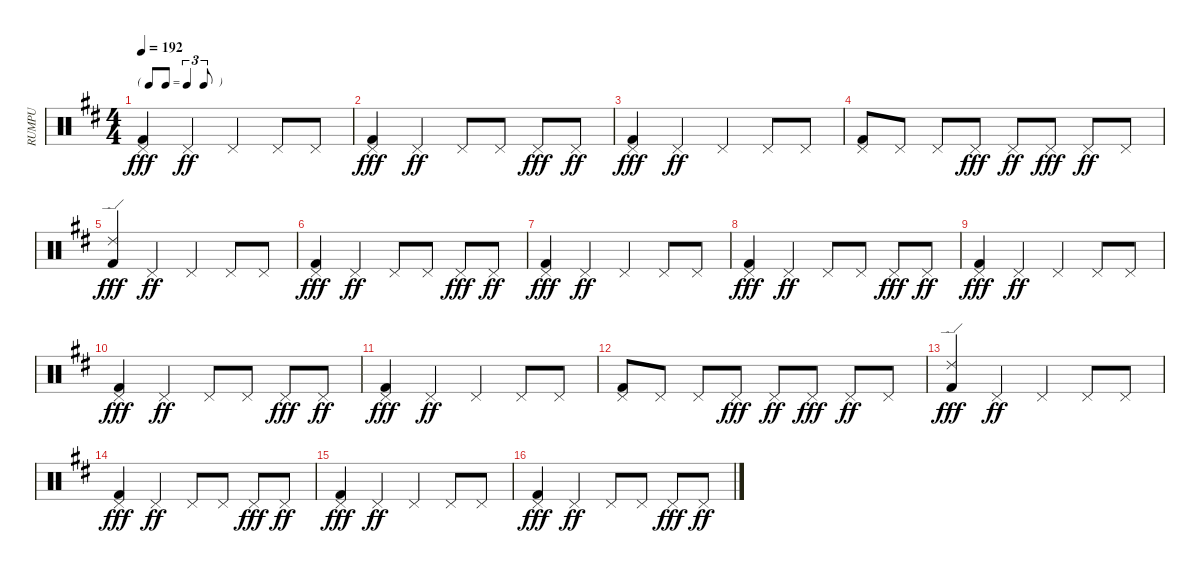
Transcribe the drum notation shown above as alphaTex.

\track ("RUMPU" "RUMPU") {instrument percussion}
\staff {score}
\articulation defaults
\ts (4 4)
\tf triplet8th
\tempo 192
\clef neutral
\ks d
("Pedal Hi-Hat (hit)" "Kick (hit) 2").4{dy fff} "Pedal Hi-Hat (hit)".4{dy ff} "Pedal Hi-Hat (hit)".4 "Pedal Hi-Hat (hit)".8 "Pedal Hi-Hat (hit)".8 |
("Pedal Hi-Hat (hit)" "Kick (hit) 2").4{dy fff} "Pedal Hi-Hat (hit)".4{dy ff} "Pedal Hi-Hat (hit)".8 "Pedal Hi-Hat (hit)".8 "Pedal Hi-Hat (hit)".8{dy fff} "Pedal Hi-Hat (hit)".8{dy ff} |
("Pedal Hi-Hat (hit)" "Kick (hit) 2").4{dy fff} "Pedal Hi-Hat (hit)".4{dy ff} "Pedal Hi-Hat (hit)".4 "Pedal Hi-Hat (hit)".8 "Pedal Hi-Hat (hit)".8 |
("Pedal Hi-Hat (hit)" "Kick (hit) 2").8 "Pedal Hi-Hat (hit)".8 "Pedal Hi-Hat (hit)".8 "Pedal Hi-Hat (hit)".8{dy fff} "Pedal Hi-Hat (hit)".8{dy ff} "Pedal Hi-Hat (hit)".8{dy fff} "Pedal Hi-Hat (hit)".8{dy ff} "Pedal Hi-Hat (hit)".8 |
("Ride (edge) 2" "Kick (hit) 2").4{dy fff} "Pedal Hi-Hat (hit)".4{dy ff} "Pedal Hi-Hat (hit)".4 "Pedal Hi-Hat (hit)".8 "Pedal Hi-Hat (hit)".8 |
("Pedal Hi-Hat (hit)" "Kick (hit) 2").4{dy fff} "Pedal Hi-Hat (hit)".4{dy ff} "Pedal Hi-Hat (hit)".8 "Pedal Hi-Hat (hit)".8 "Pedal Hi-Hat (hit)".8{dy fff} "Pedal Hi-Hat (hit)".8{dy ff} |
("Pedal Hi-Hat (hit)" "Kick (hit) 2").4{dy fff} "Pedal Hi-Hat (hit)".4{dy ff} "Pedal Hi-Hat (hit)".4 "Pedal Hi-Hat (hit)".8 "Pedal Hi-Hat (hit)".8 |
("Pedal Hi-Hat (hit)" "Kick (hit) 2").4{dy fff} "Pedal Hi-Hat (hit)".4{dy ff} "Pedal Hi-Hat (hit)".8 "Pedal Hi-Hat (hit)".8 "Pedal Hi-Hat (hit)".8{dy fff} "Pedal Hi-Hat (hit)".8{dy ff} |
("Pedal Hi-Hat (hit)" "Kick (hit) 2").4{dy fff} "Pedal Hi-Hat (hit)".4{dy ff} "Pedal Hi-Hat (hit)".4 "Pedal Hi-Hat (hit)".8 "Pedal Hi-Hat (hit)".8 |
("Pedal Hi-Hat (hit)" "Kick (hit) 2").4{dy fff} "Pedal Hi-Hat (hit)".4{dy ff} "Pedal Hi-Hat (hit)".8 "Pedal Hi-Hat (hit)".8 "Pedal Hi-Hat (hit)".8{dy fff} "Pedal Hi-Hat (hit)".8{dy ff} |
("Pedal Hi-Hat (hit)" "Kick (hit) 2").4{dy fff} "Pedal Hi-Hat (hit)".4{dy ff} "Pedal Hi-Hat (hit)".4 "Pedal Hi-Hat (hit)".8 "Pedal Hi-Hat (hit)".8 |
("Pedal Hi-Hat (hit)" "Kick (hit) 2").8 "Pedal Hi-Hat (hit)".8 "Pedal Hi-Hat (hit)".8 "Pedal Hi-Hat (hit)".8{dy fff} "Pedal Hi-Hat (hit)".8{dy ff} "Pedal Hi-Hat (hit)".8{dy fff} "Pedal Hi-Hat (hit)".8{dy ff} "Pedal Hi-Hat (hit)".8 |
("Ride (edge) 2" "Kick (hit) 2").4{dy fff} "Pedal Hi-Hat (hit)".4{dy ff} "Pedal Hi-Hat (hit)".4 "Pedal Hi-Hat (hit)".8 "Pedal Hi-Hat (hit)".8 |
("Pedal Hi-Hat (hit)" "Kick (hit) 2").4{dy fff} "Pedal Hi-Hat (hit)".4{dy ff} "Pedal Hi-Hat (hit)".8 "Pedal Hi-Hat (hit)".8 "Pedal Hi-Hat (hit)".8{dy fff} "Pedal Hi-Hat (hit)".8{dy ff} |
("Pedal Hi-Hat (hit)" "Kick (hit) 2").4{dy fff} "Pedal Hi-Hat (hit)".4{dy ff} "Pedal Hi-Hat (hit)".4 "Pedal Hi-Hat (hit)".8 "Pedal Hi-Hat (hit)".8 |
("Pedal Hi-Hat (hit)" "Kick (hit) 2").4{dy fff} "Pedal Hi-Hat (hit)".4{dy ff} "Pedal Hi-Hat (hit)".8 "Pedal Hi-Hat (hit)".8 "Pedal Hi-Hat (hit)".8{dy fff} "Pedal Hi-Hat (hit)".8{dy ff}
